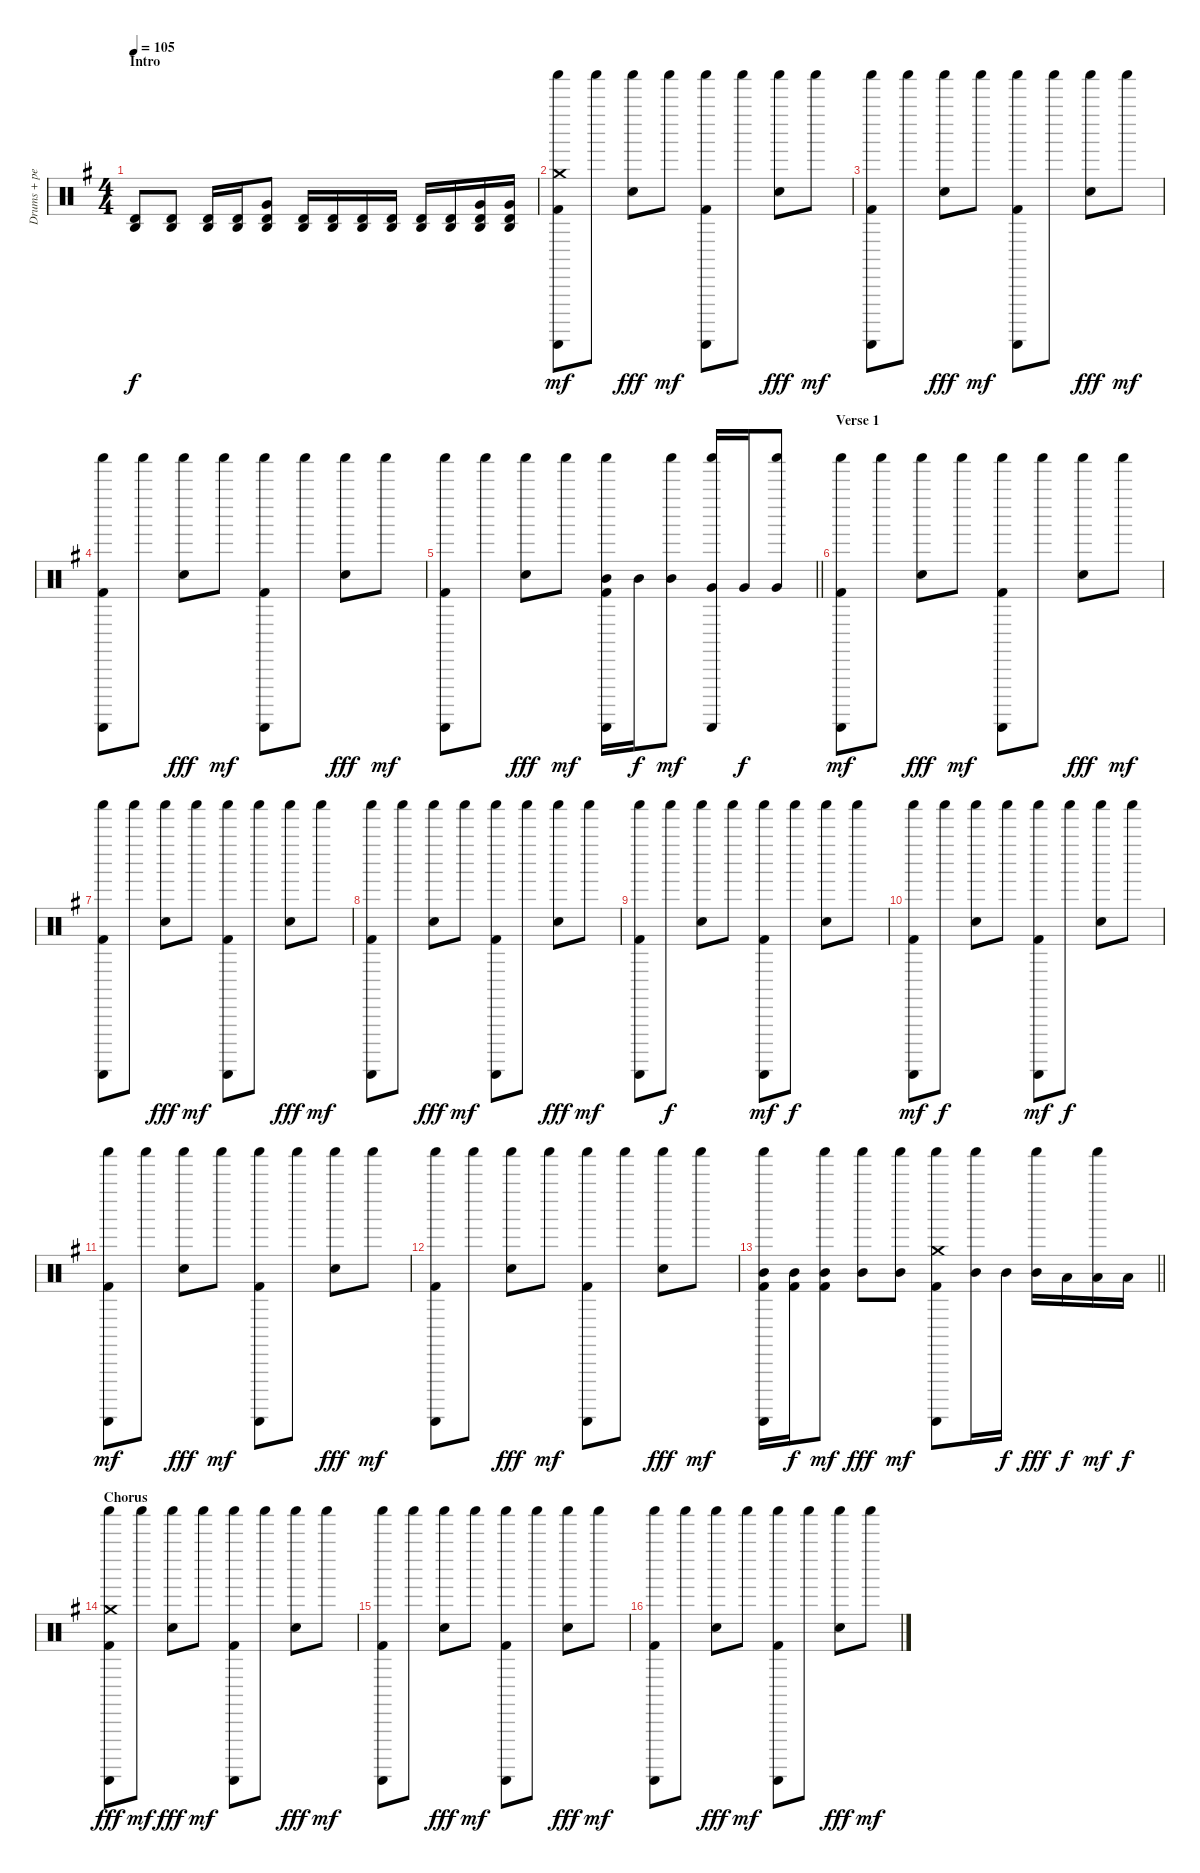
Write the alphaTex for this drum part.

\track ("Drums + percussion" "Drums + pe") {instrument percussion}
\staff {score}
\articulation defaults
\ts (4 4)
\section ("" "Intro")
\tempo 105
\clef neutral
\ks g
("Agogo high (hit)" "Timbale high (hit)").8{dy f} ("Agogo high (hit)" "Timbale high (hit)").8 ("Agogo high (hit)" "Timbale high (hit)").16 ("Agogo high (hit)" "Timbale high (hit)").16 ("Agogo high (hit)" "Timbale high (hit)" "Very Low Tom (hit)").8 ("Agogo high (hit)" "Timbale high (hit)").16 ("Agogo high (hit)" "Timbale high (hit)").16 ("Agogo high (hit)" "Timbale high (hit)").16 ("Agogo high (hit)" "Timbale high (hit)").16 ("Agogo high (hit)" "Timbale high (hit)").16 ("Agogo high (hit)" "Timbale high (hit)").16 ("Agogo high (hit)" "Timbale high (hit)" "Very Low Tom (hit)").16 ("Agogo high (hit)" "Timbale high (hit)" "Very Low Tom (hit)").16 |
("Shaker (hit)" "Guiro (scrap-return)" "Crash medium (hit)" "Kick (hit) 2").8{dy mf} "Shaker (hit)".8 ("Shaker (hit)" "Snare (hit) 2").8{dy fff} "Shaker (hit)".8{dy mf} ("Shaker (hit)" "Guiro (scrap-return)" "Kick (hit) 2").8 "Shaker (hit)".8 ("Shaker (hit)" "Snare (hit) 2").8{dy fff} "Shaker (hit)".8{dy mf} |
("Shaker (hit)" "Guiro (scrap-return)" "Kick (hit) 2").8 "Shaker (hit)".8 ("Shaker (hit)" "Snare (hit) 2").8{dy fff} "Shaker (hit)".8{dy mf} ("Shaker (hit)" "Guiro (scrap-return)" "Kick (hit) 2").8 "Shaker (hit)".8 ("Shaker (hit)" "Snare (hit) 2").8{dy fff} "Shaker (hit)".8{dy mf} |
("Shaker (hit)" "Guiro (scrap-return)" "Kick (hit) 2").8 "Shaker (hit)".8 ("Shaker (hit)" "Snare (hit) 2").8{dy fff} "Shaker (hit)".8{dy mf} ("Shaker (hit)" "Guiro (scrap-return)" "Kick (hit) 2").8 "Shaker (hit)".8 ("Shaker (hit)" "Snare (hit) 2").8{dy fff} "Shaker (hit)".8{dy mf} |
\barLineRight lightlight
("Shaker (hit)" "Guiro (scrap-return)" "Kick (hit) 2").8 "Shaker (hit)".8 ("Shaker (hit)" "Snare (hit) 2").8{dy fff} "Shaker (hit)".8{dy mf} ("Shaker (hit)" "Guiro (scrap-return)" "Mid Tom (hit)" "Kick (hit) 2").16 "Mid Tom (hit)".16{dy f} ("Shaker (hit)" "Mid Tom (hit)").8{dy mf} ("Shaker (hit)" "Guiro (scrap-return)" "Very Low Tom (hit)").16 "Very Low Tom (hit)".16{dy f} ("Shaker (hit)" "Very Low Tom (hit)").8 |
\section ("" "Verse 1")
("Shaker (hit)" "Guiro (scrap-return)" "Kick (hit) 2").8{dy mf} "Shaker (hit)".8 ("Shaker (hit)" "Snare (hit) 2").8{dy fff} "Shaker (hit)".8{dy mf} ("Shaker (hit)" "Guiro (scrap-return)" "Kick (hit) 2").8 "Shaker (hit)".8 ("Shaker (hit)" "Snare (hit) 2").8{dy fff} "Shaker (hit)".8{dy mf} |
("Shaker (hit)" "Guiro (scrap-return)" "Kick (hit) 2").8 "Shaker (hit)".8 ("Shaker (hit)" "Snare (hit) 2").8{dy fff} "Shaker (hit)".8{dy mf} ("Shaker (hit)" "Guiro (scrap-return)" "Kick (hit) 2").8 "Shaker (hit)".8 ("Shaker (hit)" "Snare (hit) 2").8{dy fff} "Shaker (hit)".8{dy mf} |
("Shaker (hit)" "Guiro (scrap-return)" "Kick (hit) 2").8 "Shaker (hit)".8 ("Shaker (hit)" "Snare (hit) 2").8{dy fff} "Shaker (hit)".8{dy mf} ("Shaker (hit)" "Guiro (scrap-return)" "Kick (hit) 2").8 "Shaker (hit)".8 ("Shaker (hit)" "Snare (hit) 2").8{dy fff} "Shaker (hit)".8{dy mf} |
("Shaker (hit)" "Guiro (scrap-return)" "Kick (hit) 2").8 "Shaker (hit)".8{dy f} ("Shaker (hit)" "Snare (hit) 2").8 "Shaker (hit)".8 ("Shaker (hit)" "Guiro (scrap-return)" "Kick (hit) 2").8{dy mf} "Shaker (hit)".8{dy f} ("Shaker (hit)" "Snare (hit) 2").8 "Shaker (hit)".8 |
("Shaker (hit)" "Guiro (scrap-return)" "Kick (hit) 2").8{dy mf} "Shaker (hit)".8{dy f} ("Shaker (hit)" "Snare (hit) 2").8 "Shaker (hit)".8 ("Shaker (hit)" "Guiro (scrap-return)" "Kick (hit) 2").8{dy mf} "Shaker (hit)".8{dy f} ("Shaker (hit)" "Snare (hit) 2").8 "Shaker (hit)".8 |
("Shaker (hit)" "Guiro (scrap-return)" "Kick (hit) 2").8{dy mf} "Shaker (hit)".8 ("Shaker (hit)" "Snare (hit) 2").8{dy fff} "Shaker (hit)".8{dy mf} ("Shaker (hit)" "Guiro (scrap-return)" "Kick (hit) 2").8 "Shaker (hit)".8 ("Shaker (hit)" "Snare (hit) 2").8{dy fff} "Shaker (hit)".8{dy mf} |
("Shaker (hit)" "Guiro (scrap-return)" "Kick (hit) 2").8 "Shaker (hit)".8 ("Shaker (hit)" "Snare (hit) 2").8{dy fff} "Shaker (hit)".8{dy mf} ("Shaker (hit)" "Guiro (scrap-return)" "Kick (hit) 2").8 "Shaker (hit)".8 ("Shaker (hit)" "Snare (hit) 2").8{dy fff} "Shaker (hit)".8{dy mf} |
\barLineRight lightlight
("Shaker (hit)" "Guiro (scrap-return)" "Mid Tom (hit)" "Kick (hit) 2").16 ("Mid Tom (hit)" "Kick (hit) 2").16{dy f} ("Shaker (hit)" "Mid Tom (hit)" "Kick (hit) 2").8{dy mf} ("Shaker (hit)" "Mid Tom (hit)").8{dy fff} ("Shaker (hit)" "Mid Tom (hit)").8{dy mf} ("Shaker (hit)" "Guiro (scrap-return)" "Crash medium (hit)" "Kick (hit) 2").8 ("Shaker (hit)" "Mid Tom (hit)").16 "Mid Tom (hit)".16{dy f} ("Shaker (hit)" "Mid Tom (hit)").16{dy fff} "Low Tom (hit)".16{dy f} ("Shaker (hit)" "Low Tom (hit)").16{dy mf} "Low Tom (hit)".16{dy f} |
\section ("" "Chorus")
("Shaker (hit)" "Guiro (scrap-return)" "Crash medium (hit)" "Kick (hit) 2").8{dy fff} "Shaker (hit)".8{dy mf} ("Shaker (hit)" "Snare (hit) 2").8{dy fff} "Shaker (hit)".8{dy mf} ("Shaker (hit)" "Guiro (scrap-return)" "Kick (hit) 2").8 "Shaker (hit)".8 ("Shaker (hit)" "Snare (hit) 2").8{dy fff} "Shaker (hit)".8{dy mf} |
("Shaker (hit)" "Guiro (scrap-return)" "Kick (hit) 2").8 "Shaker (hit)".8 ("Shaker (hit)" "Snare (hit) 2").8{dy fff} "Shaker (hit)".8{dy mf} ("Shaker (hit)" "Guiro (scrap-return)" "Kick (hit) 2").8 "Shaker (hit)".8 ("Shaker (hit)" "Snare (hit) 2").8{dy fff} "Shaker (hit)".8{dy mf} |
("Shaker (hit)" "Guiro (scrap-return)" "Kick (hit) 2").8 "Shaker (hit)".8 ("Shaker (hit)" "Snare (hit) 2").8{dy fff} "Shaker (hit)".8{dy mf} ("Shaker (hit)" "Guiro (scrap-return)" "Kick (hit) 2").8 "Shaker (hit)".8 ("Shaker (hit)" "Snare (hit) 2").8{dy fff} "Shaker (hit)".8{dy mf}
